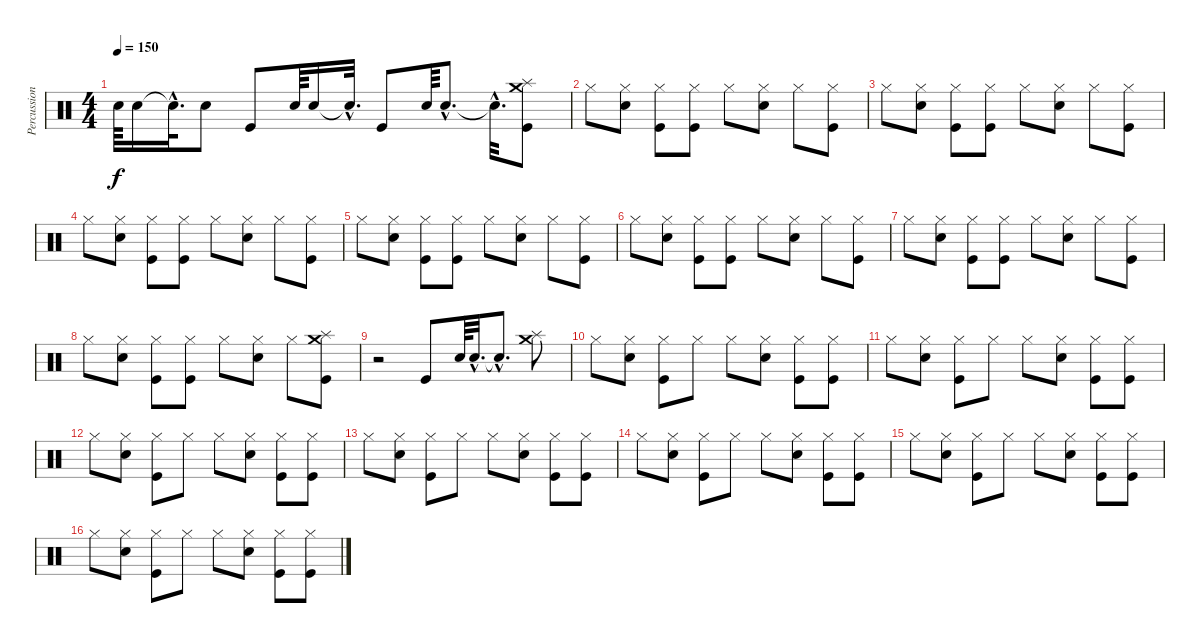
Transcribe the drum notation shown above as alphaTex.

\track ("Percussioni" "Percussion") {instrument percussion}
\staff {score}
\articulation defaults
\ts (4 4)
\tempo 150
\clef neutral
\ks c "Snare (hit) 2".64{dy f} "Snare (hit) 2".16 "Snare (hit)"{hac t}.32{d} "Snare (hit) 2".8 "Kick (hit)".8 "Snare (hit) 2".64 "Snare (hit) 2".16 "Snare (hit)"{hac t}.32{d} "Kick (hit)".8 "Snare (hit) 2".64 "Snare (hit) 2"{hac}.8{d} "Snare (hit)"{hac t}.32{d}
("Crash medium (hit)" "Splash (hit)" "Kick (hit)").8 |
"Hi-Hat (closed)".8 ("Hi-Hat (closed)" "Snare (hit) 2").8 ("Hi-Hat (closed)" "Kick (hit)").8 ("Hi-Hat (closed)" "Kick (hit)").8 "Hi-Hat (closed)".8 ("Hi-Hat (closed)" "Snare (hit) 2").8 "Hi-Hat (closed)".8 ("Hi-Hat (closed)" "Kick (hit)").8 |
"Hi-Hat (closed)".8 ("Hi-Hat (closed)" "Snare (hit) 2").8 ("Hi-Hat (closed)" "Kick (hit)").8 ("Hi-Hat (closed)" "Kick (hit)").8 "Hi-Hat (closed)".8 ("Hi-Hat (closed)" "Snare (hit) 2").8 "Hi-Hat (closed)".8 ("Hi-Hat (closed)" "Kick (hit)").8 |
"Hi-Hat (closed)".8 ("Hi-Hat (closed)" "Snare (hit) 2").8 ("Hi-Hat (closed)" "Kick (hit)").8 ("Hi-Hat (closed)" "Kick (hit)").8 "Hi-Hat (closed)".8 ("Hi-Hat (closed)" "Snare (hit) 2").8 "Hi-Hat (closed)".8 ("Hi-Hat (closed)" "Kick (hit)").8 |
"Hi-Hat (closed)".8 ("Hi-Hat (closed)" "Snare (hit) 2").8 ("Hi-Hat (closed)" "Kick (hit)").8 ("Hi-Hat (closed)" "Kick (hit)").8 "Hi-Hat (closed)".8 ("Hi-Hat (closed)" "Snare (hit) 2").8 "Hi-Hat (closed)".8 ("Hi-Hat (closed)" "Kick (hit)").8 |
"Hi-Hat (closed)".8 ("Hi-Hat (closed)" "Snare (hit) 2").8 ("Hi-Hat (closed)" "Kick (hit)").8 ("Hi-Hat (closed)" "Kick (hit)").8 "Hi-Hat (closed)".8 ("Hi-Hat (closed)" "Snare (hit) 2").8 "Hi-Hat (closed)".8 ("Hi-Hat (closed)" "Kick (hit)").8 |
"Hi-Hat (closed)".8 ("Hi-Hat (closed)" "Snare (hit) 2").8 ("Hi-Hat (closed)" "Kick (hit)").8 ("Hi-Hat (closed)" "Kick (hit)").8 "Hi-Hat (closed)".8 ("Hi-Hat (closed)" "Snare (hit) 2").8 "Hi-Hat (closed)".8 ("Hi-Hat (closed)" "Kick (hit)").8 |
"Hi-Hat (closed)".8 ("Hi-Hat (closed)" "Snare (hit) 2").8 ("Hi-Hat (closed)" "Kick (hit)").8 ("Hi-Hat (closed)" "Kick (hit)").8 "Hi-Hat (closed)".8 ("Hi-Hat (closed)" "Snare (hit) 2").8 "Hi-Hat (closed)".8 ("Splash (hit)" "Crash medium (hit)" "Kick (hit)").8 |
r.2 "Kick (hit)".8 "Snare (hit) 2".64 "Snare (hit) 2"{hac}.32{d} "Snare (hit)"{hac t}.8{d} ("Splash (hit)" "Crash medium (hit)").8 |
"Hi-Hat (closed)".8 ("Hi-Hat (closed)" "Snare (hit) 2").8 ("Hi-Hat (closed)" "Kick (hit)").8 "Hi-Hat (closed)".8 "Hi-Hat (closed)".8 ("Hi-Hat (closed)" "Snare (hit) 2").8 ("Hi-Hat (closed)" "Kick (hit)").8 ("Hi-Hat (closed)" "Kick (hit)").8 |
"Hi-Hat (closed)".8 ("Hi-Hat (closed)" "Snare (hit) 2").8 ("Hi-Hat (closed)" "Kick (hit)").8 "Hi-Hat (closed)".8 "Hi-Hat (closed)".8 ("Hi-Hat (closed)" "Snare (hit) 2").8 ("Hi-Hat (closed)" "Kick (hit)").8 ("Hi-Hat (closed)" "Kick (hit)").8 |
"Hi-Hat (closed)".8 ("Hi-Hat (closed)" "Snare (hit) 2").8 ("Hi-Hat (closed)" "Kick (hit)").8 "Hi-Hat (closed)".8 "Hi-Hat (closed)".8 ("Hi-Hat (closed)" "Snare (hit) 2").8 ("Hi-Hat (closed)" "Kick (hit)").8 ("Hi-Hat (closed)" "Kick (hit)").8 |
"Hi-Hat (closed)".8 ("Hi-Hat (closed)" "Snare (hit) 2").8 ("Hi-Hat (closed)" "Kick (hit)").8 "Hi-Hat (closed)".8 "Hi-Hat (closed)".8 ("Hi-Hat (closed)" "Snare (hit) 2").8 ("Hi-Hat (closed)" "Kick (hit)").8 ("Hi-Hat (closed)" "Kick (hit)").8 |
"Hi-Hat (closed)".8 ("Hi-Hat (closed)" "Snare (hit) 2").8 ("Hi-Hat (closed)" "Kick (hit)").8 "Hi-Hat (closed)".8 "Hi-Hat (closed)".8 ("Hi-Hat (closed)" "Snare (hit) 2").8 ("Hi-Hat (closed)" "Kick (hit)").8 ("Hi-Hat (closed)" "Kick (hit)").8 |
"Hi-Hat (closed)".8 ("Hi-Hat (closed)" "Snare (hit) 2").8 ("Hi-Hat (closed)" "Kick (hit)").8 "Hi-Hat (closed)".8 "Hi-Hat (closed)".8 ("Hi-Hat (closed)" "Snare (hit) 2").8 ("Hi-Hat (closed)" "Kick (hit)").8 ("Hi-Hat (closed)" "Kick (hit)").8 |
"Hi-Hat (closed)".8 ("Hi-Hat (closed)" "Snare (hit) 2").8 ("Hi-Hat (closed)" "Kick (hit)").8 "Hi-Hat (closed)".8 "Hi-Hat (closed)".8 ("Hi-Hat (closed)" "Snare (hit) 2").8 ("Hi-Hat (closed)" "Kick (hit)").8 ("Hi-Hat (closed)" "Kick (hit)").8
